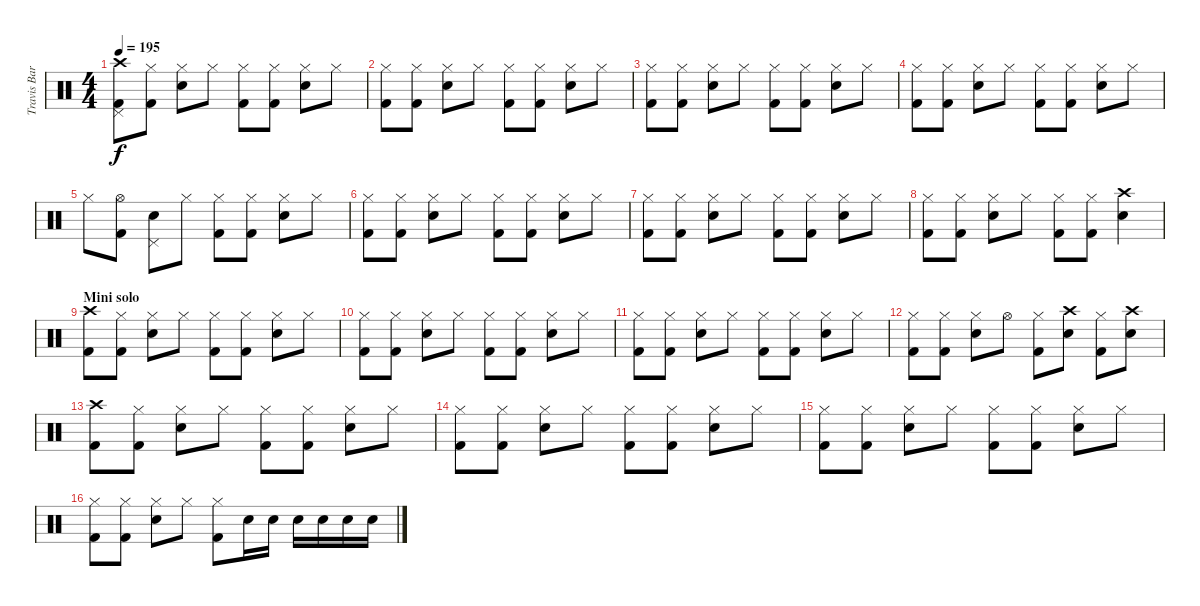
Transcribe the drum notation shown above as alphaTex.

\track ("Travis Barker (Schlagzeug)" "Travis Bar") {instrument percussion}
\staff {score}
\articulation defaults
\ts (4 4)
\tempo 195
\clef neutral
\ks c
("Pedal Hi-Hat (hit)" "Crash high (hit)" "Kick (hit) 2").8{dy f} ("Hi-Hat (closed)" "Kick (hit) 2").8 ("Hi-Hat (closed)" "Electric Snare (hit)").8 "Hi-Hat (closed)".8 ("Hi-Hat (closed)" "Kick (hit) 2").8 ("Hi-Hat (closed)" "Kick (hit) 2").8 ("Hi-Hat (closed)" "Electric Snare (hit)").8 "Hi-Hat (closed)".8 |
("Hi-Hat (closed)" "Kick (hit) 2").8 ("Hi-Hat (closed)" "Kick (hit) 2").8 ("Hi-Hat (closed)" "Electric Snare (hit)").8 "Hi-Hat (closed)".8 ("Hi-Hat (closed)" "Kick (hit) 2").8 ("Hi-Hat (closed)" "Kick (hit) 2").8 ("Hi-Hat (closed)" "Electric Snare (hit)").8 "Hi-Hat (closed)".8 |
("Hi-Hat (closed)" "Kick (hit) 2").8 ("Hi-Hat (closed)" "Kick (hit) 2").8 ("Hi-Hat (closed)" "Electric Snare (hit)").8 "Hi-Hat (closed)".8 ("Hi-Hat (closed)" "Kick (hit) 2").8 ("Hi-Hat (closed)" "Kick (hit) 2").8 ("Hi-Hat (closed)" "Electric Snare (hit)").8 "Hi-Hat (closed)".8 |
("Hi-Hat (closed)" "Kick (hit) 2").8 ("Hi-Hat (closed)" "Kick (hit) 2").8 ("Hi-Hat (closed)" "Electric Snare (hit)").8 "Hi-Hat (closed)".8 ("Hi-Hat (closed)" "Kick (hit) 2").8 ("Hi-Hat (closed)" "Kick (hit) 2").8 ("Hi-Hat (closed)" "Electric Snare (hit)").8 "Hi-Hat (closed)".8 |
"Hi-Hat (closed)".8 ("Hi-Hat (open)" "Kick (hit) 2").8 ("Pedal Hi-Hat (hit)" "Electric Snare (hit)").8 "Hi-Hat (closed)".8 ("Hi-Hat (closed)" "Kick (hit) 2").8 ("Hi-Hat (closed)" "Kick (hit) 2").8 ("Hi-Hat (closed)" "Electric Snare (hit)").8 "Hi-Hat (closed)".8 |
("Hi-Hat (closed)" "Kick (hit) 2").8 ("Hi-Hat (closed)" "Kick (hit) 2").8 ("Hi-Hat (closed)" "Electric Snare (hit)").8 "Hi-Hat (closed)".8 ("Hi-Hat (closed)" "Kick (hit) 2").8 ("Hi-Hat (closed)" "Kick (hit) 2").8 ("Hi-Hat (closed)" "Electric Snare (hit)").8 "Hi-Hat (closed)".8 |
("Hi-Hat (closed)" "Kick (hit) 2").8 ("Hi-Hat (closed)" "Kick (hit) 2").8 ("Hi-Hat (closed)" "Electric Snare (hit)").8 "Hi-Hat (closed)".8 ("Hi-Hat (closed)" "Kick (hit) 2").8 ("Hi-Hat (closed)" "Kick (hit) 2").8 ("Hi-Hat (closed)" "Electric Snare (hit)").8 "Hi-Hat (closed)".8 |
("Hi-Hat (closed)" "Kick (hit) 2").8 ("Hi-Hat (closed)" "Kick (hit) 2").8 ("Hi-Hat (closed)" "Electric Snare (hit)").8 "Hi-Hat (closed)".8 ("Hi-Hat (closed)" "Kick (hit) 2").8 ("Hi-Hat (closed)" "Kick (hit) 2").8 ("Crash high (hit)" "Electric Snare (hit)").4 |
\section ("" "Mini solo")
("Crash high (hit)" "Kick (hit) 2").8 ("Hi-Hat (closed)" "Kick (hit) 2").8 ("Hi-Hat (closed)" "Electric Snare (hit)").8 "Hi-Hat (closed)".8 ("Hi-Hat (closed)" "Kick (hit) 2").8 ("Hi-Hat (closed)" "Kick (hit) 2").8 ("Hi-Hat (closed)" "Electric Snare (hit)").8 "Hi-Hat (closed)".8 |
("Hi-Hat (closed)" "Kick (hit) 2").8 ("Hi-Hat (closed)" "Kick (hit) 2").8 ("Hi-Hat (closed)" "Electric Snare (hit)").8 "Hi-Hat (closed)".8 ("Hi-Hat (closed)" "Kick (hit) 2").8 ("Hi-Hat (closed)" "Kick (hit) 2").8 ("Hi-Hat (closed)" "Electric Snare (hit)").8 "Hi-Hat (closed)".8 |
("Hi-Hat (closed)" "Kick (hit) 2").8 ("Hi-Hat (closed)" "Kick (hit) 2").8 ("Hi-Hat (closed)" "Electric Snare (hit)").8 "Hi-Hat (closed)".8 ("Hi-Hat (closed)" "Kick (hit) 2").8 ("Hi-Hat (closed)" "Kick (hit) 2").8 ("Hi-Hat (closed)" "Electric Snare (hit)").8 "Hi-Hat (closed)".8 |
("Hi-Hat (closed)" "Kick (hit) 2").8 ("Hi-Hat (closed)" "Kick (hit) 2").8 ("Hi-Hat (closed)" "Electric Snare (hit)").8 "Hi-Hat (open)".8 ("Hi-Hat (closed)" "Kick (hit) 2").8 ("Crash high (hit)" "Electric Snare (hit)").8 ("Hi-Hat (closed)" "Kick (hit) 2").8 ("Crash high (hit)" "Electric Snare (hit)").8 |
("Crash high (hit)" "Kick (hit) 2").8 ("Hi-Hat (closed)" "Kick (hit) 2").8 ("Hi-Hat (closed)" "Electric Snare (hit)").8 "Hi-Hat (closed)".8 ("Hi-Hat (closed)" "Kick (hit) 2").8 ("Hi-Hat (closed)" "Kick (hit) 2").8 ("Hi-Hat (closed)" "Electric Snare (hit)").8 "Hi-Hat (closed)".8 |
("Hi-Hat (closed)" "Kick (hit) 2").8 ("Hi-Hat (closed)" "Kick (hit) 2").8 ("Hi-Hat (closed)" "Electric Snare (hit)").8 "Hi-Hat (closed)".8 ("Hi-Hat (closed)" "Kick (hit) 2").8 ("Hi-Hat (closed)" "Kick (hit) 2").8 ("Hi-Hat (closed)" "Electric Snare (hit)").8 "Hi-Hat (closed)".8 |
("Hi-Hat (closed)" "Kick (hit) 2").8 ("Hi-Hat (closed)" "Kick (hit) 2").8 ("Hi-Hat (closed)" "Electric Snare (hit)").8 "Hi-Hat (closed)".8 ("Hi-Hat (closed)" "Kick (hit) 2").8 ("Hi-Hat (closed)" "Kick (hit) 2").8 ("Hi-Hat (closed)" "Electric Snare (hit)").8 "Hi-Hat (closed)".8 |
("Hi-Hat (closed)" "Kick (hit) 2").8 ("Hi-Hat (closed)" "Kick (hit) 2").8 ("Hi-Hat (closed)" "Electric Snare (hit)").8 "Hi-Hat (closed)".8 ("Hi-Hat (closed)" "Kick (hit) 2").8 "Electric Snare (hit)".16 "Electric Snare (hit)".16 "Electric Snare (hit)".16 "Electric Snare (hit)".16 "Electric Snare (hit)".16 "Electric Snare (hit)".16
